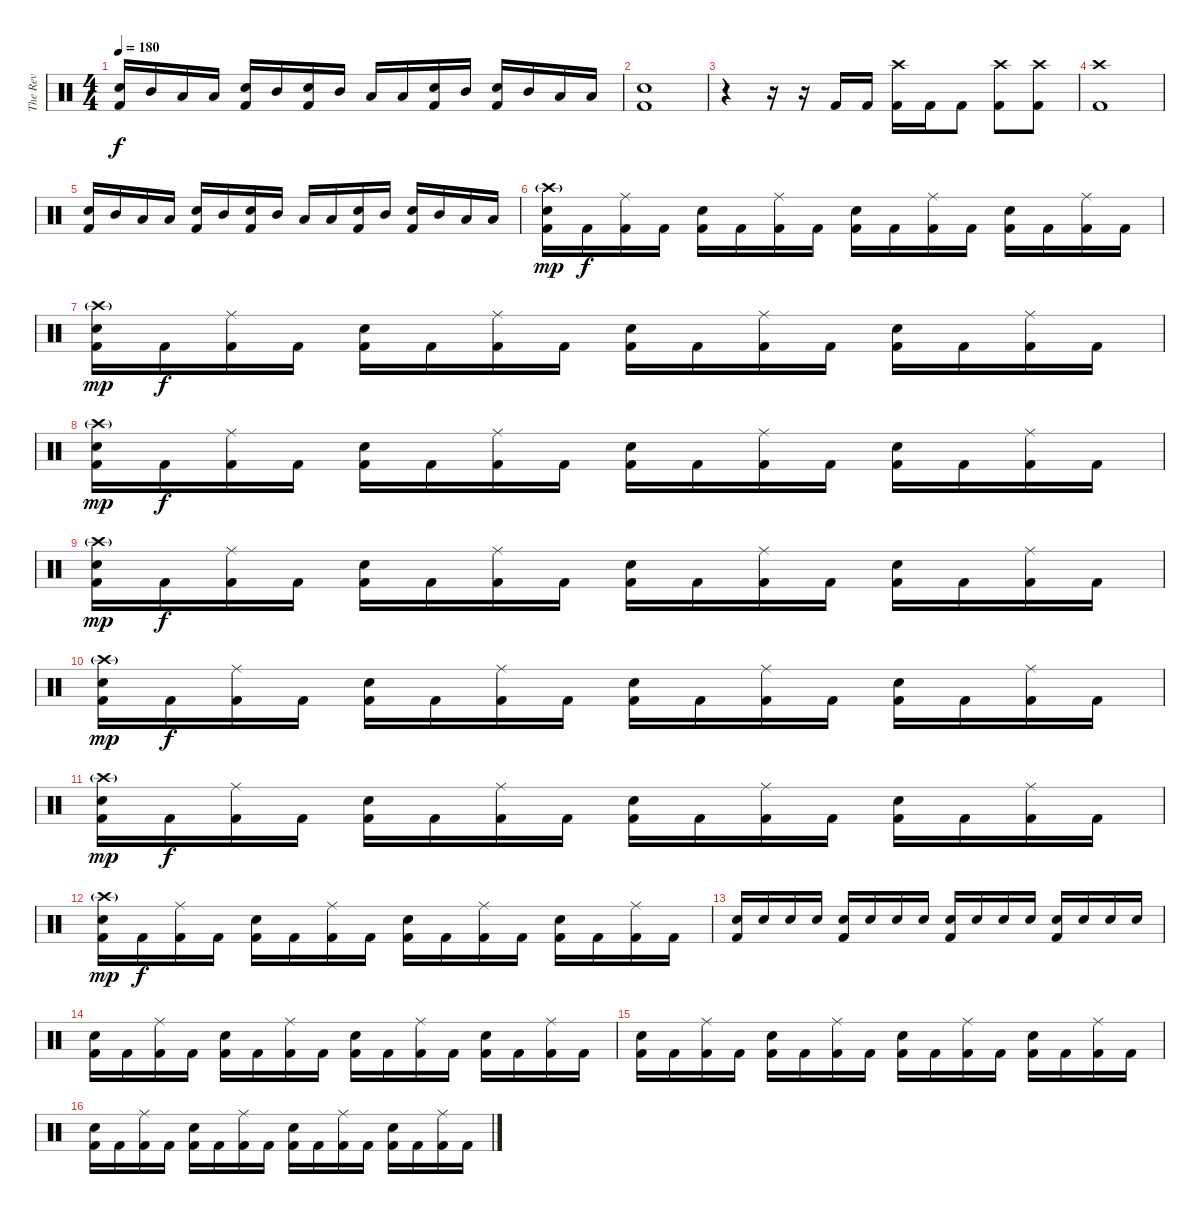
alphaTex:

\track ("The Rev" "The Rev") {instrument percussion}
\staff {score}
\articulation defaults
\ts (4 4)
\tempo 180
\clef neutral
\ks c
("Snare (hit) 2" "Kick (hit) 2").16{dy f} "Mid Tom (hit)".16 "Low Tom (hit)".16 "Low Floor Tom (hit)".16 ("Snare (hit) 2" "Kick (hit) 2").16 "Mid Tom (hit)".16 ("Snare (hit) 2" "Kick (hit) 2").16 "Mid Tom (hit)".16 "Low Tom (hit)".16 "Low Floor Tom (hit)".16 ("Snare (hit) 2" "Kick (hit) 2").16 "Mid Tom (hit)".16 ("Snare (hit) 2" "Kick (hit) 2").16 "Mid Tom (hit)".16 "Low Tom (hit)".16 "Low Floor Tom (hit)".16 |
("Snare (hit) 2" "Kick (hit) 2").1 |
r.4 r.16 r.16 "Kick (hit) 2".16 "Kick (hit) 2".16 ("Crash high (hit)" "Kick (hit) 2").16 "Kick (hit) 2".16 "Kick (hit) 2".8 ("Crash high (hit)" "Kick (hit) 2").8 ("Crash high (hit)" "Kick (hit) 2").8 |
("Crash high (hit)" "Kick (hit) 2").1 |
("Snare (hit) 2" "Kick (hit) 2").16 "Mid Tom (hit)".16 "Low Tom (hit)".16 "Low Floor Tom (hit)".16 ("Snare (hit) 2" "Kick (hit) 2").16 "Mid Tom (hit)".16 ("Snare (hit) 2" "Kick (hit) 2").16 "Mid Tom (hit)".16 "Low Tom (hit)".16 "Low Floor Tom (hit)".16 ("Snare (hit) 2" "Kick (hit) 2").16 "Mid Tom (hit)".16 ("Snare (hit) 2" "Kick (hit) 2").16 "Mid Tom (hit)".16 "Low Tom (hit)".16 "Low Floor Tom (hit)".16 |
("Crash high (hit)"{g} "Snare (hit) 2" "Kick (hit) 2").16{dy mp} "Kick (hit) 2".16{dy f} ("Ride (middle)" "Kick (hit) 2").16 "Kick (hit) 2".16 ("Snare (hit) 2" "Kick (hit) 2").16 "Kick (hit) 2".16 ("Ride (middle)" "Kick (hit) 2").16 "Kick (hit) 2".16 ("Snare (hit) 2" "Kick (hit) 2").16 "Kick (hit) 2".16 ("Ride (middle)" "Kick (hit) 2").16 "Kick (hit) 2".16 ("Snare (hit) 2" "Kick (hit) 2").16 "Kick (hit) 2".16 ("Ride (middle)" "Kick (hit) 2").16 "Kick (hit) 2".16 |
("Crash high (hit)"{g} "Snare (hit) 2" "Kick (hit) 2").16{dy mp} "Kick (hit) 2".16{dy f} ("Ride (middle)" "Kick (hit) 2").16 "Kick (hit) 2".16 ("Snare (hit) 2" "Kick (hit) 2").16 "Kick (hit) 2".16 ("Ride (middle)" "Kick (hit) 2").16 "Kick (hit) 2".16 ("Snare (hit) 2" "Kick (hit) 2").16 "Kick (hit) 2".16 ("Ride (middle)" "Kick (hit) 2").16 "Kick (hit) 2".16 ("Snare (hit) 2" "Kick (hit) 2").16 "Kick (hit) 2".16 ("Ride (middle)" "Kick (hit) 2").16 "Kick (hit) 2".16 |
("Crash high (hit)"{g} "Snare (hit) 2" "Kick (hit) 2").16{dy mp} "Kick (hit) 2".16{dy f} ("Ride (middle)" "Kick (hit) 2").16 "Kick (hit) 2".16 ("Snare (hit) 2" "Kick (hit) 2").16 "Kick (hit) 2".16 ("Ride (middle)" "Kick (hit) 2").16 "Kick (hit) 2".16 ("Snare (hit) 2" "Kick (hit) 2").16 "Kick (hit) 2".16 ("Ride (middle)" "Kick (hit) 2").16 "Kick (hit) 2".16 ("Snare (hit) 2" "Kick (hit) 2").16 "Kick (hit) 2".16 ("Ride (middle)" "Kick (hit) 2").16 "Kick (hit) 2".16 |
("Crash high (hit)"{g} "Snare (hit) 2" "Kick (hit) 2").16{dy mp} "Kick (hit) 2".16{dy f} ("Ride (middle)" "Kick (hit) 2").16 "Kick (hit) 2".16 ("Snare (hit) 2" "Kick (hit) 2").16 "Kick (hit) 2".16 ("Ride (middle)" "Kick (hit) 2").16 "Kick (hit) 2".16 ("Snare (hit) 2" "Kick (hit) 2").16 "Kick (hit) 2".16 ("Ride (middle)" "Kick (hit) 2").16 "Kick (hit) 2".16 ("Snare (hit) 2" "Kick (hit) 2").16 "Kick (hit) 2".16 ("Ride (middle)" "Kick (hit) 2").16 "Kick (hit) 2".16 |
("Crash high (hit)"{g} "Snare (hit) 2" "Kick (hit) 2").16{dy mp} "Kick (hit) 2".16{dy f} ("Ride (middle)" "Kick (hit) 2").16 "Kick (hit) 2".16 ("Snare (hit) 2" "Kick (hit) 2").16 "Kick (hit) 2".16 ("Ride (middle)" "Kick (hit) 2").16 "Kick (hit) 2".16 ("Snare (hit) 2" "Kick (hit) 2").16 "Kick (hit) 2".16 ("Ride (middle)" "Kick (hit) 2").16 "Kick (hit) 2".16 ("Snare (hit) 2" "Kick (hit) 2").16 "Kick (hit) 2".16 ("Ride (middle)" "Kick (hit) 2").16 "Kick (hit) 2".16 |
("Crash high (hit)"{g} "Snare (hit) 2" "Kick (hit) 2").16{dy mp} "Kick (hit) 2".16{dy f} ("Ride (middle)" "Kick (hit) 2").16 "Kick (hit) 2".16 ("Snare (hit) 2" "Kick (hit) 2").16 "Kick (hit) 2".16 ("Ride (middle)" "Kick (hit) 2").16 "Kick (hit) 2".16 ("Snare (hit) 2" "Kick (hit) 2").16 "Kick (hit) 2".16 ("Ride (middle)" "Kick (hit) 2").16 "Kick (hit) 2".16 ("Snare (hit) 2" "Kick (hit) 2").16 "Kick (hit) 2".16 ("Ride (middle)" "Kick (hit) 2").16 "Kick (hit) 2".16 |
("Crash high (hit)"{g} "Snare (hit) 2" "Kick (hit) 2").16{dy mp} "Kick (hit) 2".16{dy f} ("Ride (middle)" "Kick (hit) 2").16 "Kick (hit) 2".16 ("Snare (hit) 2" "Kick (hit) 2").16 "Kick (hit) 2".16 ("Ride (middle)" "Kick (hit) 2").16 "Kick (hit) 2".16 ("Snare (hit) 2" "Kick (hit) 2").16 "Kick (hit) 2".16 ("Ride (middle)" "Kick (hit) 2").16 "Kick (hit) 2".16 ("Snare (hit) 2" "Kick (hit) 2").16 "Kick (hit) 2".16 ("Ride (middle)" "Kick (hit) 2").16 "Kick (hit) 2".16 |
("Kick (hit) 2" "Snare (hit) 2").16 "Snare (hit) 2".16 "Snare (hit) 2".16 "Snare (hit) 2".16 ("Kick (hit) 2" "Snare (hit) 2").16 "Snare (hit) 2".16 "Snare (hit) 2".16 "Snare (hit) 2".16 ("Kick (hit) 2" "Snare (hit) 2").16 "Snare (hit) 2".16 "Snare (hit) 2".16 "Snare (hit) 2".16 ("Kick (hit) 2" "Snare (hit) 2").16 "Snare (hit) 2".16 "Snare (hit) 2".16 "Snare (hit) 2".16 |
("Snare (hit) 2" "Kick (hit) 2").16 "Kick (hit) 2".16 ("Ride (middle)" "Kick (hit) 2").16 "Kick (hit) 2".16 ("Snare (hit) 2" "Kick (hit) 2").16 "Kick (hit) 2".16 ("Ride (middle)" "Kick (hit) 2").16 "Kick (hit) 2".16 ("Snare (hit) 2" "Kick (hit) 2").16 "Kick (hit) 2".16 ("Ride (middle)" "Kick (hit) 2").16 "Kick (hit) 2".16 ("Snare (hit) 2" "Kick (hit) 2").16 "Kick (hit) 2".16 ("Ride (middle)" "Kick (hit) 2").16 "Kick (hit) 2".16 |
("Snare (hit) 2" "Kick (hit) 2").16 "Kick (hit) 2".16 ("Ride (middle)" "Kick (hit) 2").16 "Kick (hit) 2".16 ("Snare (hit) 2" "Kick (hit) 2").16 "Kick (hit) 2".16 ("Ride (middle)" "Kick (hit) 2").16 "Kick (hit) 2".16 ("Snare (hit) 2" "Kick (hit) 2").16 "Kick (hit) 2".16 ("Ride (middle)" "Kick (hit) 2").16 "Kick (hit) 2".16 ("Snare (hit) 2" "Kick (hit) 2").16 "Kick (hit) 2".16 ("Ride (middle)" "Kick (hit) 2").16 "Kick (hit) 2".16 |
("Snare (hit) 2" "Kick (hit) 2").16 "Kick (hit) 2".16 ("Ride (middle)" "Kick (hit) 2").16 "Kick (hit) 2".16 ("Snare (hit) 2" "Kick (hit) 2").16 "Kick (hit) 2".16 ("Ride (middle)" "Kick (hit) 2").16 "Kick (hit) 2".16 ("Snare (hit) 2" "Kick (hit) 2").16 "Kick (hit) 2".16 ("Ride (middle)" "Kick (hit) 2").16 "Kick (hit) 2".16 ("Snare (hit) 2" "Kick (hit) 2").16 "Kick (hit) 2".16 ("Ride (middle)" "Kick (hit) 2").16 "Kick (hit) 2".16
